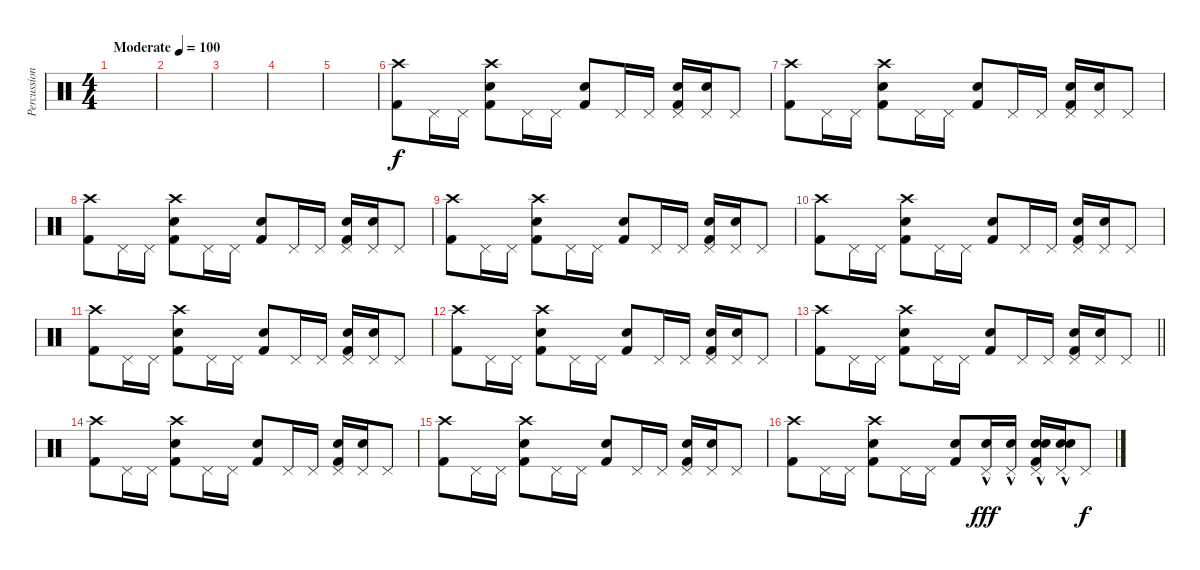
\track ("Percussion" "Percussion") {instrument percussion}
\staff {score}
\articulation defaults
\ts (4 4)
\tempo (100 "Moderate")
\clef neutral
\ks c
|
|
|
|
|
("Crash high (hit)" "Kick (hit) 2").8 "Pedal Hi-Hat (hit)".16 "Pedal Hi-Hat (hit)".16 ("Electric Snare (hit)" "Crash high (hit)" "Kick (hit) 2").8 "Pedal Hi-Hat (hit)".16 "Pedal Hi-Hat (hit)".16 ("Electric Snare (hit)" "Kick (hit) 2").8 "Pedal Hi-Hat (hit)".16 "Pedal Hi-Hat (hit)".16 ("Pedal Hi-Hat (hit)" "Electric Snare (hit)" "Kick (hit) 2").16 ("Pedal Hi-Hat (hit)" "Electric Snare (hit)").16 "Pedal Hi-Hat (hit)".8 |
("Crash high (hit)" "Kick (hit) 2").8 "Pedal Hi-Hat (hit)".16 "Pedal Hi-Hat (hit)".16 ("Electric Snare (hit)" "Crash high (hit)" "Kick (hit) 2").8 "Pedal Hi-Hat (hit)".16 "Pedal Hi-Hat (hit)".16 ("Electric Snare (hit)" "Kick (hit) 2").8 "Pedal Hi-Hat (hit)".16 "Pedal Hi-Hat (hit)".16 ("Pedal Hi-Hat (hit)" "Electric Snare (hit)" "Kick (hit) 2").16 ("Pedal Hi-Hat (hit)" "Electric Snare (hit)").16 "Pedal Hi-Hat (hit)".8 |
("Crash high (hit)" "Kick (hit) 2").8 "Pedal Hi-Hat (hit)".16 "Pedal Hi-Hat (hit)".16 ("Electric Snare (hit)" "Crash high (hit)" "Kick (hit) 2").8 "Pedal Hi-Hat (hit)".16 "Pedal Hi-Hat (hit)".16 ("Electric Snare (hit)" "Kick (hit) 2").8 "Pedal Hi-Hat (hit)".16 "Pedal Hi-Hat (hit)".16 ("Pedal Hi-Hat (hit)" "Electric Snare (hit)" "Kick (hit) 2").16 ("Pedal Hi-Hat (hit)" "Electric Snare (hit)").16 "Pedal Hi-Hat (hit)".8 |
("Crash high (hit)" "Kick (hit) 2").8 "Pedal Hi-Hat (hit)".16 "Pedal Hi-Hat (hit)".16 ("Electric Snare (hit)" "Crash high (hit)" "Kick (hit) 2").8 "Pedal Hi-Hat (hit)".16 "Pedal Hi-Hat (hit)".16 ("Electric Snare (hit)" "Kick (hit) 2").8 "Pedal Hi-Hat (hit)".16 "Pedal Hi-Hat (hit)".16 ("Pedal Hi-Hat (hit)" "Electric Snare (hit)" "Kick (hit) 2").16 ("Pedal Hi-Hat (hit)" "Electric Snare (hit)").16 "Pedal Hi-Hat (hit)".8 |
("Crash high (hit)" "Kick (hit) 2").8 "Pedal Hi-Hat (hit)".16 "Pedal Hi-Hat (hit)".16 ("Electric Snare (hit)" "Crash high (hit)" "Kick (hit) 2").8 "Pedal Hi-Hat (hit)".16 "Pedal Hi-Hat (hit)".16 ("Electric Snare (hit)" "Kick (hit) 2").8 "Pedal Hi-Hat (hit)".16 "Pedal Hi-Hat (hit)".16 ("Pedal Hi-Hat (hit)" "Electric Snare (hit)" "Kick (hit) 2").16 ("Pedal Hi-Hat (hit)" "Electric Snare (hit)").16 "Pedal Hi-Hat (hit)".8 |
("Crash high (hit)" "Kick (hit) 2").8 "Pedal Hi-Hat (hit)".16 "Pedal Hi-Hat (hit)".16 ("Electric Snare (hit)" "Crash high (hit)" "Kick (hit) 2").8 "Pedal Hi-Hat (hit)".16 "Pedal Hi-Hat (hit)".16 ("Electric Snare (hit)" "Kick (hit) 2").8 "Pedal Hi-Hat (hit)".16 "Pedal Hi-Hat (hit)".16 ("Pedal Hi-Hat (hit)" "Electric Snare (hit)" "Kick (hit) 2").16 ("Pedal Hi-Hat (hit)" "Electric Snare (hit)").16 "Pedal Hi-Hat (hit)".8 |
("Crash high (hit)" "Kick (hit) 2").8 "Pedal Hi-Hat (hit)".16 "Pedal Hi-Hat (hit)".16 ("Electric Snare (hit)" "Crash high (hit)" "Kick (hit) 2").8 "Pedal Hi-Hat (hit)".16 "Pedal Hi-Hat (hit)".16 ("Electric Snare (hit)" "Kick (hit) 2").8 "Pedal Hi-Hat (hit)".16 "Pedal Hi-Hat (hit)".16 ("Pedal Hi-Hat (hit)" "Electric Snare (hit)" "Kick (hit) 2").16 ("Pedal Hi-Hat (hit)" "Electric Snare (hit)").16 "Pedal Hi-Hat (hit)".8 |
\barLineRight lightlight
("Crash high (hit)" "Kick (hit) 2").8 "Pedal Hi-Hat (hit)".16 "Pedal Hi-Hat (hit)".16 ("Electric Snare (hit)" "Crash high (hit)" "Kick (hit) 2").8 "Pedal Hi-Hat (hit)".16 "Pedal Hi-Hat (hit)".16 ("Electric Snare (hit)" "Kick (hit) 2").8 "Pedal Hi-Hat (hit)".16 "Pedal Hi-Hat (hit)".16 ("Pedal Hi-Hat (hit)" "Electric Snare (hit)" "Kick (hit) 2").16 ("Pedal Hi-Hat (hit)" "Electric Snare (hit)").16 "Pedal Hi-Hat (hit)".8 |
("Crash high (hit)" "Kick (hit) 2").8 "Pedal Hi-Hat (hit)".16 "Pedal Hi-Hat (hit)".16 ("Electric Snare (hit)" "Crash high (hit)" "Kick (hit) 2").8 "Pedal Hi-Hat (hit)".16 "Pedal Hi-Hat (hit)".16 ("Electric Snare (hit)" "Kick (hit) 2").8 "Pedal Hi-Hat (hit)".16 "Pedal Hi-Hat (hit)".16 ("Pedal Hi-Hat (hit)" "Electric Snare (hit)" "Kick (hit) 2").16 ("Pedal Hi-Hat (hit)" "Electric Snare (hit)").16 "Pedal Hi-Hat (hit)".8 |
("Crash high (hit)" "Kick (hit) 2").8 "Pedal Hi-Hat (hit)".16 "Pedal Hi-Hat (hit)".16 ("Electric Snare (hit)" "Crash high (hit)" "Kick (hit) 2").8 "Pedal Hi-Hat (hit)".16 "Pedal Hi-Hat (hit)".16 ("Electric Snare (hit)" "Kick (hit) 2").8 "Pedal Hi-Hat (hit)".16 "Pedal Hi-Hat (hit)".16 ("Pedal Hi-Hat (hit)" "Electric Snare (hit)" "Kick (hit) 2").16 ("Pedal Hi-Hat (hit)" "Electric Snare (hit)").16 "Pedal Hi-Hat (hit)".8 |
("Crash high (hit)" "Kick (hit) 2").8 "Pedal Hi-Hat (hit)".16 "Pedal Hi-Hat (hit)".16 ("Electric Snare (hit)" "Crash high (hit)" "Kick (hit) 2").8 "Pedal Hi-Hat (hit)".16 "Pedal Hi-Hat (hit)".16 ("Electric Snare (hit)" "Kick (hit) 2").8 ("Pedal Hi-Hat (hit)" "Electric Snare (hit)"{hac}).16{dy fff} ("Pedal Hi-Hat (hit)" "Electric Snare (hit)"{hac}).16 ("Pedal Hi-Hat (hit)" "Electric Snare (hit)"{hac} "Electric Snare (hit)" "Kick (hit) 2").16 ("Pedal Hi-Hat (hit)" "Electric Snare (hit)"{hac} "Electric Snare (hit)").16 "Pedal Hi-Hat (hit)".8{dy f}
